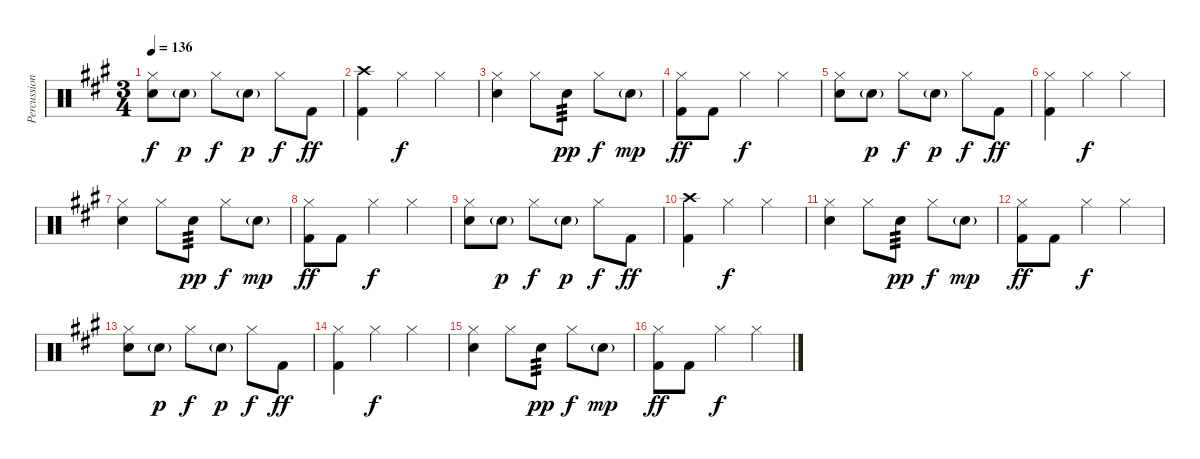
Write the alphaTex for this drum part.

\track ("Percussion" "Percussion") {solo instrument percussion}
\staff {score}
\articulation defaults
\ts (3 4)
\tempo 136
\clef neutral
\ks a
("Hi-Hat (closed)" "Snare (hit) 2").8{dy f} "Snare (hit) 2"{g}.8{dy p} "Hi-Hat (closed)".8{dy f} "Snare (hit) 2"{g}.8{dy p} "Hi-Hat (closed)".8{dy f} "Kick (hit) 2".8{dy ff} |
("Crash high (hit)" "Kick (hit) 2").4 "Hi-Hat (closed)".4{dy f} "Hi-Hat (closed)".4 |
("Hi-Hat (closed)" "Snare (hit) 2").4 "Hi-Hat (closed)".8 "Snare (hit) 2".8{tp 3 dy pp} "Hi-Hat (closed)".8{dy f} "Snare (hit) 2"{g}.8{dy mp} |
("Hi-Hat (closed)" "Kick (hit) 2").8{dy ff} "Kick (hit) 2".8 "Hi-Hat (closed)".4{dy f} "Hi-Hat (closed)".4 |
("Hi-Hat (closed)" "Snare (hit) 2").8 "Snare (hit) 2"{g}.8{dy p} "Hi-Hat (closed)".8{dy f} "Snare (hit) 2"{g}.8{dy p} "Hi-Hat (closed)".8{dy f} "Kick (hit) 2".8{dy ff} |
("Hi-Hat (closed)" "Kick (hit) 2").4 "Hi-Hat (closed)".4{dy f} "Hi-Hat (closed)".4 |
("Hi-Hat (closed)" "Snare (hit) 2").4 "Hi-Hat (closed)".8 "Snare (hit) 2".8{tp 3 dy pp} "Hi-Hat (closed)".8{dy f} "Snare (hit) 2"{g}.8{dy mp} |
("Hi-Hat (closed)" "Kick (hit) 2").8{dy ff} "Kick (hit) 2".8 "Hi-Hat (closed)".4{dy f} "Hi-Hat (closed)".4 |
("Hi-Hat (closed)" "Snare (hit) 2").8 "Snare (hit) 2"{g}.8{dy p} "Hi-Hat (closed)".8{dy f} "Snare (hit) 2"{g}.8{dy p} "Hi-Hat (closed)".8{dy f} "Kick (hit) 2".8{dy ff} |
("Crash high (hit)" "Kick (hit) 2").4 "Hi-Hat (closed)".4{dy f} "Hi-Hat (closed)".4 |
("Hi-Hat (closed)" "Snare (hit) 2").4 "Hi-Hat (closed)".8 "Snare (hit) 2".8{tp 3 dy pp} "Hi-Hat (closed)".8{dy f} "Snare (hit) 2"{g}.8{dy mp} |
("Hi-Hat (closed)" "Kick (hit) 2").8{dy ff} "Kick (hit) 2".8 "Hi-Hat (closed)".4{dy f} "Hi-Hat (closed)".4 |
("Hi-Hat (closed)" "Snare (hit) 2").8 "Snare (hit) 2"{g}.8{dy p} "Hi-Hat (closed)".8{dy f} "Snare (hit) 2"{g}.8{dy p} "Hi-Hat (closed)".8{dy f} "Kick (hit) 2".8{dy ff} |
("Hi-Hat (closed)" "Kick (hit) 2").4 "Hi-Hat (closed)".4{dy f} "Hi-Hat (closed)".4 |
("Hi-Hat (closed)" "Snare (hit) 2").4 "Hi-Hat (closed)".8 "Snare (hit) 2".8{tp 3 dy pp} "Hi-Hat (closed)".8{dy f} "Snare (hit) 2"{g}.8{dy mp} |
("Hi-Hat (closed)" "Kick (hit) 2").8{dy ff} "Kick (hit) 2".8 "Hi-Hat (closed)".4{dy f} "Hi-Hat (closed)".4
